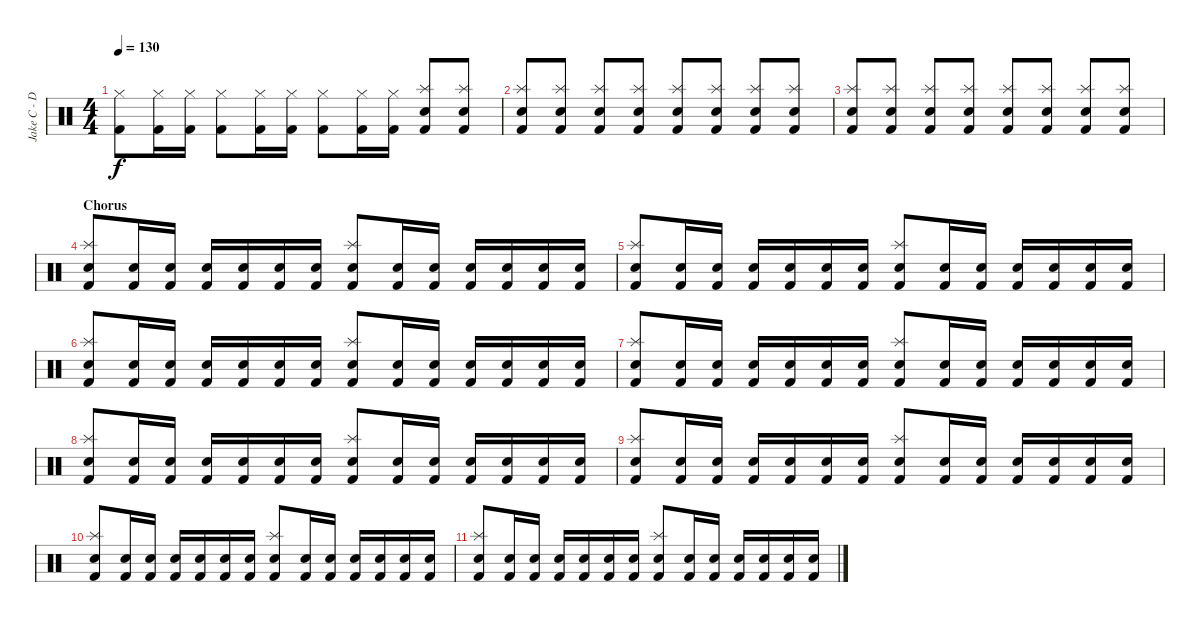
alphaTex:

\track ("Jake C - Drums" "Jake C - D") {instrument percussion}
\staff {score}
\articulation defaults
\ts (4 4)
\tempo 130
\clef neutral
\ks c
("Hi-Hat (closed)" "Kick (hit) 2").8{dy f} ("Hi-Hat (closed)" "Kick (hit) 2").16 ("Hi-Hat (closed)" "Kick (hit) 2").16 ("Hi-Hat (closed)" "Kick (hit) 2").8 ("Hi-Hat (closed)" "Kick (hit) 2").16 ("Hi-Hat (closed)" "Kick (hit) 2").16 ("Hi-Hat (closed)" "Kick (hit) 2").8 ("Hi-Hat (closed)" "Kick (hit) 2").16 ("Hi-Hat (closed)" "Kick (hit) 2").16 ("Splash (hit)" "Electric Snare (hit)" "Kick (hit) 2").8 ("Splash (hit)" "Electric Snare (hit)" "Kick (hit) 2").8 |
("Splash (hit)" "Electric Snare (hit)" "Kick (hit) 2").8 ("Splash (hit)" "Electric Snare (hit)" "Kick (hit) 2").8 ("Splash (hit)" "Electric Snare (hit)" "Kick (hit) 2").8 ("Splash (hit)" "Electric Snare (hit)" "Kick (hit) 2").8 ("Splash (hit)" "Electric Snare (hit)" "Kick (hit) 2").8 ("Splash (hit)" "Electric Snare (hit)" "Kick (hit) 2").8 ("Splash (hit)" "Electric Snare (hit)" "Kick (hit) 2").8 ("Splash (hit)" "Electric Snare (hit)" "Kick (hit) 2").8 |
("Splash (hit)" "Electric Snare (hit)" "Kick (hit) 2").8 ("Splash (hit)" "Electric Snare (hit)" "Kick (hit) 2").8 ("Splash (hit)" "Electric Snare (hit)" "Kick (hit) 2").8 ("Splash (hit)" "Electric Snare (hit)" "Kick (hit) 2").8 ("Splash (hit)" "Electric Snare (hit)" "Kick (hit) 2").8 ("Splash (hit)" "Electric Snare (hit)" "Kick (hit) 2").8 ("Splash (hit)" "Electric Snare (hit)" "Kick (hit) 2").8 ("Splash (hit)" "Electric Snare (hit)" "Kick (hit) 2").8 |
\section ("" "Chorus")
("Splash (hit)" "Electric Snare (hit)" "Kick (hit) 2").8 ("Electric Snare (hit)" "Kick (hit) 2").16 ("Electric Snare (hit)" "Kick (hit) 2").16 ("Electric Snare (hit)" "Kick (hit) 2").16 ("Electric Snare (hit)" "Kick (hit) 2").16 ("Electric Snare (hit)" "Kick (hit) 2").16 ("Electric Snare (hit)" "Kick (hit) 2").16 ("Splash (hit)" "Electric Snare (hit)" "Kick (hit) 2").8 ("Electric Snare (hit)" "Kick (hit) 2").16 ("Electric Snare (hit)" "Kick (hit) 2").16 ("Electric Snare (hit)" "Kick (hit) 2").16 ("Electric Snare (hit)" "Kick (hit) 2").16 ("Electric Snare (hit)" "Kick (hit) 2").16 ("Electric Snare (hit)" "Kick (hit) 2").16 |
("Splash (hit)" "Electric Snare (hit)" "Kick (hit) 2").8 ("Electric Snare (hit)" "Kick (hit) 2").16 ("Electric Snare (hit)" "Kick (hit) 2").16 ("Electric Snare (hit)" "Kick (hit) 2").16 ("Electric Snare (hit)" "Kick (hit) 2").16 ("Electric Snare (hit)" "Kick (hit) 2").16 ("Electric Snare (hit)" "Kick (hit) 2").16 ("Splash (hit)" "Electric Snare (hit)" "Kick (hit) 2").8 ("Electric Snare (hit)" "Kick (hit) 2").16 ("Electric Snare (hit)" "Kick (hit) 2").16 ("Electric Snare (hit)" "Kick (hit) 2").16 ("Electric Snare (hit)" "Kick (hit) 2").16 ("Electric Snare (hit)" "Kick (hit) 2").16 ("Electric Snare (hit)" "Kick (hit) 2").16 |
("Splash (hit)" "Electric Snare (hit)" "Kick (hit) 2").8 ("Electric Snare (hit)" "Kick (hit) 2").16 ("Electric Snare (hit)" "Kick (hit) 2").16 ("Electric Snare (hit)" "Kick (hit) 2").16 ("Electric Snare (hit)" "Kick (hit) 2").16 ("Electric Snare (hit)" "Kick (hit) 2").16 ("Electric Snare (hit)" "Kick (hit) 2").16 ("Splash (hit)" "Electric Snare (hit)" "Kick (hit) 2").8 ("Electric Snare (hit)" "Kick (hit) 2").16 ("Electric Snare (hit)" "Kick (hit) 2").16 ("Electric Snare (hit)" "Kick (hit) 2").16 ("Electric Snare (hit)" "Kick (hit) 2").16 ("Electric Snare (hit)" "Kick (hit) 2").16 ("Electric Snare (hit)" "Kick (hit) 2").16 |
("Splash (hit)" "Electric Snare (hit)" "Kick (hit) 2").8 ("Electric Snare (hit)" "Kick (hit) 2").16 ("Electric Snare (hit)" "Kick (hit) 2").16 ("Electric Snare (hit)" "Kick (hit) 2").16 ("Electric Snare (hit)" "Kick (hit) 2").16 ("Electric Snare (hit)" "Kick (hit) 2").16 ("Electric Snare (hit)" "Kick (hit) 2").16 ("Splash (hit)" "Electric Snare (hit)" "Kick (hit) 2").8 ("Electric Snare (hit)" "Kick (hit) 2").16 ("Electric Snare (hit)" "Kick (hit) 2").16 ("Electric Snare (hit)" "Kick (hit) 2").16 ("Electric Snare (hit)" "Kick (hit) 2").16 ("Electric Snare (hit)" "Kick (hit) 2").16 ("Electric Snare (hit)" "Kick (hit) 2").16 |
("Splash (hit)" "Electric Snare (hit)" "Kick (hit) 2").8 ("Electric Snare (hit)" "Kick (hit) 2").16 ("Electric Snare (hit)" "Kick (hit) 2").16 ("Electric Snare (hit)" "Kick (hit) 2").16 ("Electric Snare (hit)" "Kick (hit) 2").16 ("Electric Snare (hit)" "Kick (hit) 2").16 ("Electric Snare (hit)" "Kick (hit) 2").16 ("Splash (hit)" "Electric Snare (hit)" "Kick (hit) 2").8 ("Electric Snare (hit)" "Kick (hit) 2").16 ("Electric Snare (hit)" "Kick (hit) 2").16 ("Electric Snare (hit)" "Kick (hit) 2").16 ("Electric Snare (hit)" "Kick (hit) 2").16 ("Electric Snare (hit)" "Kick (hit) 2").16 ("Electric Snare (hit)" "Kick (hit) 2").16 |
("Splash (hit)" "Electric Snare (hit)" "Kick (hit) 2").8 ("Electric Snare (hit)" "Kick (hit) 2").16 ("Electric Snare (hit)" "Kick (hit) 2").16 ("Electric Snare (hit)" "Kick (hit) 2").16 ("Electric Snare (hit)" "Kick (hit) 2").16 ("Electric Snare (hit)" "Kick (hit) 2").16 ("Electric Snare (hit)" "Kick (hit) 2").16 ("Splash (hit)" "Electric Snare (hit)" "Kick (hit) 2").8 ("Electric Snare (hit)" "Kick (hit) 2").16 ("Electric Snare (hit)" "Kick (hit) 2").16 ("Electric Snare (hit)" "Kick (hit) 2").16 ("Electric Snare (hit)" "Kick (hit) 2").16 ("Electric Snare (hit)" "Kick (hit) 2").16 ("Electric Snare (hit)" "Kick (hit) 2").16 |
("Splash (hit)" "Electric Snare (hit)" "Kick (hit) 2").8 ("Electric Snare (hit)" "Kick (hit) 2").16 ("Electric Snare (hit)" "Kick (hit) 2").16 ("Electric Snare (hit)" "Kick (hit) 2").16 ("Electric Snare (hit)" "Kick (hit) 2").16 ("Electric Snare (hit)" "Kick (hit) 2").16 ("Electric Snare (hit)" "Kick (hit) 2").16 ("Splash (hit)" "Electric Snare (hit)" "Kick (hit) 2").8 ("Electric Snare (hit)" "Kick (hit) 2").16 ("Electric Snare (hit)" "Kick (hit) 2").16 ("Electric Snare (hit)" "Kick (hit) 2").16 ("Electric Snare (hit)" "Kick (hit) 2").16 ("Electric Snare (hit)" "Kick (hit) 2").16 ("Electric Snare (hit)" "Kick (hit) 2").16 |
("Splash (hit)" "Electric Snare (hit)" "Kick (hit) 2").8 ("Electric Snare (hit)" "Kick (hit) 2").16 ("Electric Snare (hit)" "Kick (hit) 2").16 ("Electric Snare (hit)" "Kick (hit) 2").16 ("Electric Snare (hit)" "Kick (hit) 2").16 ("Electric Snare (hit)" "Kick (hit) 2").16 ("Electric Snare (hit)" "Kick (hit) 2").16 ("Splash (hit)" "Electric Snare (hit)" "Kick (hit) 2").8 ("Electric Snare (hit)" "Kick (hit) 2").16 ("Electric Snare (hit)" "Kick (hit) 2").16 ("Electric Snare (hit)" "Kick (hit) 2").16 ("Electric Snare (hit)" "Kick (hit) 2").16 ("Electric Snare (hit)" "Kick (hit) 2").16 ("Electric Snare (hit)" "Kick (hit) 2").16
